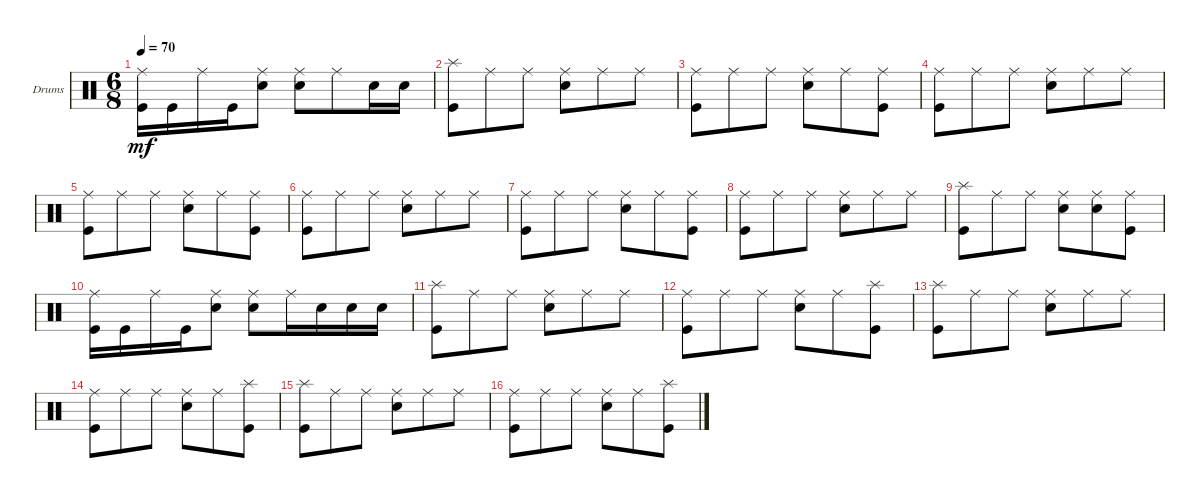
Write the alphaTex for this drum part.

\defaultSystemsLayout 4
\bracketExtendMode groupsimilarinstruments
\firstSystemTrackNameOrientation horizontal
\otherSystemsTrackNameOrientation horizontal
\track ("Drumkit" "Drums") {instrument percussion}
\staff {score}
\articulation defaults
\ts (6 8)
\tempo 70
\clef neutral
\scale
0.333333
\ks c
("Kick (hit)" "Ride (middle)").16{dy mf} "Kick (hit)".16 "Ride (middle)".16 "Kick (hit)".16 ("Snare (hit) 2" "Ride (middle)").8 ("Ride (middle)" "Snare (hit) 2").8 "Ride (middle)".8 "Snare (hit) 2".16 "Snare (hit) 2".16 |
\scale
0.333333 ("Splash (hit)" "Kick (hit)").8 "Ride (middle)".8 "Ride (middle)".8 ("Ride (middle)" "Snare (hit) 2").8 "Ride (middle)".8 "Ride (middle)".8 |
\scale
0.333333 ("Ride (middle)" "Kick (hit)").8 "Ride (middle)".8 "Ride (middle)".8 ("Ride (middle)" "Snare (hit) 2").8 "Ride (middle)".8 ("Ride (middle)" "Kick (hit)").8 |
\scale
0.333333 ("Ride (middle)" "Kick (hit)").8 "Ride (middle)".8 "Ride (middle)".8 ("Ride (middle)" "Snare (hit) 2").8 "Ride (middle)".8 "Ride (middle)".8 |
\scale
0.333333 ("Ride (middle)" "Kick (hit)").8 "Ride (middle)".8 "Ride (middle)".8 ("Ride (middle)" "Snare (hit) 2").8 "Ride (middle)".8 ("Ride (middle)" "Kick (hit)").8 |
\scale
0.333333 ("Ride (middle)" "Kick (hit)").8 "Ride (middle)".8 "Ride (middle)".8 ("Ride (middle)" "Snare (hit) 2").8 "Ride (middle)".8 "Ride (middle)".8 |
\scale
0.333333 ("Ride (middle)" "Kick (hit)").8 "Ride (middle)".8 "Ride (middle)".8 ("Ride (middle)" "Snare (hit) 2").8 "Ride (middle)".8 ("Ride (middle)" "Kick (hit)").8 |
\scale
0.333333 ("Ride (middle)" "Kick (hit)").8 "Ride (middle)".8 "Ride (middle)".8 ("Ride (middle)" "Snare (hit) 2").8 "Ride (middle)".8 "Ride (middle)".8 |
\scale
0.333333 ("Splash (hit)" "Kick (hit)").8 "Ride (middle)".8 "Ride (middle)".8 ("Ride (middle)" "Snare (hit) 2").8 ("Ride (middle)" "Snare (hit) 2").8 ("Ride (middle)" "Kick (hit)").8 |
\scale
0.333333 ("Ride (middle)" "Kick (hit)").16 "Kick (hit)".16 "Ride (middle)".16 "Kick (hit)".16 ("Ride (middle)" "Snare (hit) 2").8 ("Ride (middle)" "Snare (hit) 2").8 "Ride (middle)".16 "Snare (hit) 2".16 "Snare (hit) 2".16 "Snare (hit) 2".16 |
\scale
0.333333 ("Splash (hit)" "Kick (hit)").8 "Ride (middle)".8 "Ride (middle)".8 ("Ride (middle)" "Snare (hit) 2").8 "Ride (middle)".8 "Ride (middle)".8 |
\scale
0.333333 ("Kick (hit)" "Ride (middle)").8 "Ride (middle)".8 "Ride (middle)".8 ("Ride (middle)" "Snare (hit) 2").8 "Ride (middle)".8 ("Splash (hit)" "Kick (hit)").8 |
\scale
0.333333 ("Splash (hit)" "Kick (hit)").8 "Ride (middle)".8 "Ride (middle)".8 ("Ride (middle)" "Snare (hit) 2").8 "Ride (middle)".8 "Ride (middle)".8 |
\scale
0.333333 ("Kick (hit)" "Ride (middle)").8 "Ride (middle)".8 "Ride (middle)".8 ("Ride (middle)" "Snare (hit) 2").8 "Ride (middle)".8 ("Splash (hit)" "Kick (hit)").8 |
\scale
0.333333 ("Splash (hit)" "Kick (hit)").8 "Ride (middle)".8 "Ride (middle)".8 ("Ride (middle)" "Snare (hit) 2").8 "Ride (middle)".8 "Ride (middle)".8 |
\scale
0.333333 ("Kick (hit)" "Ride (middle)").8 "Ride (middle)".8 "Ride (middle)".8 ("Ride (middle)" "Snare (hit) 2").8 "Ride (middle)".8 ("Splash (hit)" "Kick (hit)").8
